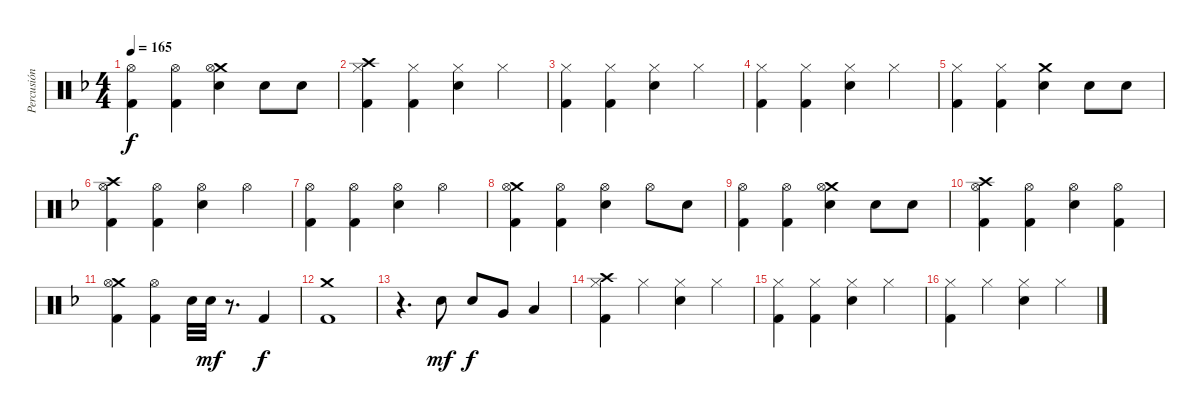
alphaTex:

\track ("Percusión" "Percusión") {instrument percussion}
\staff {score}
\articulation defaults
\ts (4 4)
\tempo 165
\clef neutral
\ks f
("Hi-Hat (open)" "Kick (hit) 2").4{dy f} ("Hi-Hat (open)" "Kick (hit) 2").4 ("Crash medium (hit)" "Hi-Hat (open)" "Electric Snare (hit)").4 "Electric Snare (hit)".8 "Electric Snare (hit)".8 |
("Crash high (hit)" "Hi-Hat (closed)" "Kick (hit) 2").4 ("Hi-Hat (closed)" "Kick (hit) 2").4 ("Hi-Hat (closed)" "Electric Snare (hit)").4 "Hi-Hat (closed)".4 |
("Hi-Hat (closed)" "Kick (hit) 2").4 ("Hi-Hat (closed)" "Kick (hit) 2").4 ("Hi-Hat (closed)" "Electric Snare (hit)").4 "Hi-Hat (closed)".4 |
("Hi-Hat (closed)" "Kick (hit) 2").4 ("Hi-Hat (closed)" "Kick (hit) 2").4 ("Hi-Hat (closed)" "Electric Snare (hit)").4 "Hi-Hat (closed)".4 |
("Hi-Hat (closed)" "Kick (hit) 2").4 ("Hi-Hat (closed)" "Kick (hit) 2").4 ("Crash medium (hit)" "Electric Snare (hit)").4 "Electric Snare (hit)".8 "Electric Snare (hit)".8 |
("Crash high (hit)" "Hi-Hat (open)" "Kick (hit) 2").4 ("Hi-Hat (open)" "Kick (hit) 2").4 ("Hi-Hat (open)" "Electric Snare (hit)").4 "Hi-Hat (open)".4 |
("Hi-Hat (open)" "Kick (hit) 2").4 ("Hi-Hat (open)" "Kick (hit) 2").4 ("Hi-Hat (open)" "Electric Snare (hit)").4 "Hi-Hat (open)".4 |
("Crash medium (hit)" "Hi-Hat (open)" "Kick (hit) 2").4 ("Hi-Hat (open)" "Kick (hit) 2").4 ("Hi-Hat (open)" "Electric Snare (hit)").4 "Hi-Hat (open)".8 "Electric Snare (hit)".8 |
("Hi-Hat (open)" "Kick (hit) 2").4 ("Hi-Hat (open)" "Kick (hit) 2").4 ("Crash medium (hit)" "Hi-Hat (open)" "Electric Snare (hit)").4 "Electric Snare (hit)".8 "Electric Snare (hit)".8 |
("Crash high (hit)" "Hi-Hat (open)" "Kick (hit) 2").4 ("Hi-Hat (open)" "Kick (hit) 2").4 ("Hi-Hat (open)" "Electric Snare (hit)").4 ("Hi-Hat (open)" "Kick (hit) 2").4 |
("Crash medium (hit)" "Hi-Hat (open)" "Kick (hit) 2").4 ("Hi-Hat (open)" "Kick (hit) 2").4 "Electric Snare (hit)".32 "Electric Snare (hit)".32{dy mf} r.8{d} "Kick (hit) 2".4{dy f} |
("Crash medium (hit)" "Kick (hit) 2").1 |
r.4{d} "Electric Snare (hit)".8{dy mf} "Electric Snare (hit)".8{dy f} "Very Low Tom (hit)".8 "Low Floor Tom (hit)".4 |
("Crash high (hit)" "Hi-Hat (closed)" "Kick (hit) 2").4 "Hi-Hat (closed)".4 ("Hi-Hat (closed)" "Electric Snare (hit)").4 "Hi-Hat (closed)".4 |
("Hi-Hat (closed)" "Kick (hit) 2").4 ("Hi-Hat (closed)" "Kick (hit) 2").4 ("Hi-Hat (closed)" "Electric Snare (hit)").4 "Hi-Hat (closed)".4 |
("Hi-Hat (closed)" "Kick (hit) 2").4 "Hi-Hat (closed)".4 ("Hi-Hat (closed)" "Electric Snare (hit)").4 "Hi-Hat (closed)".4
